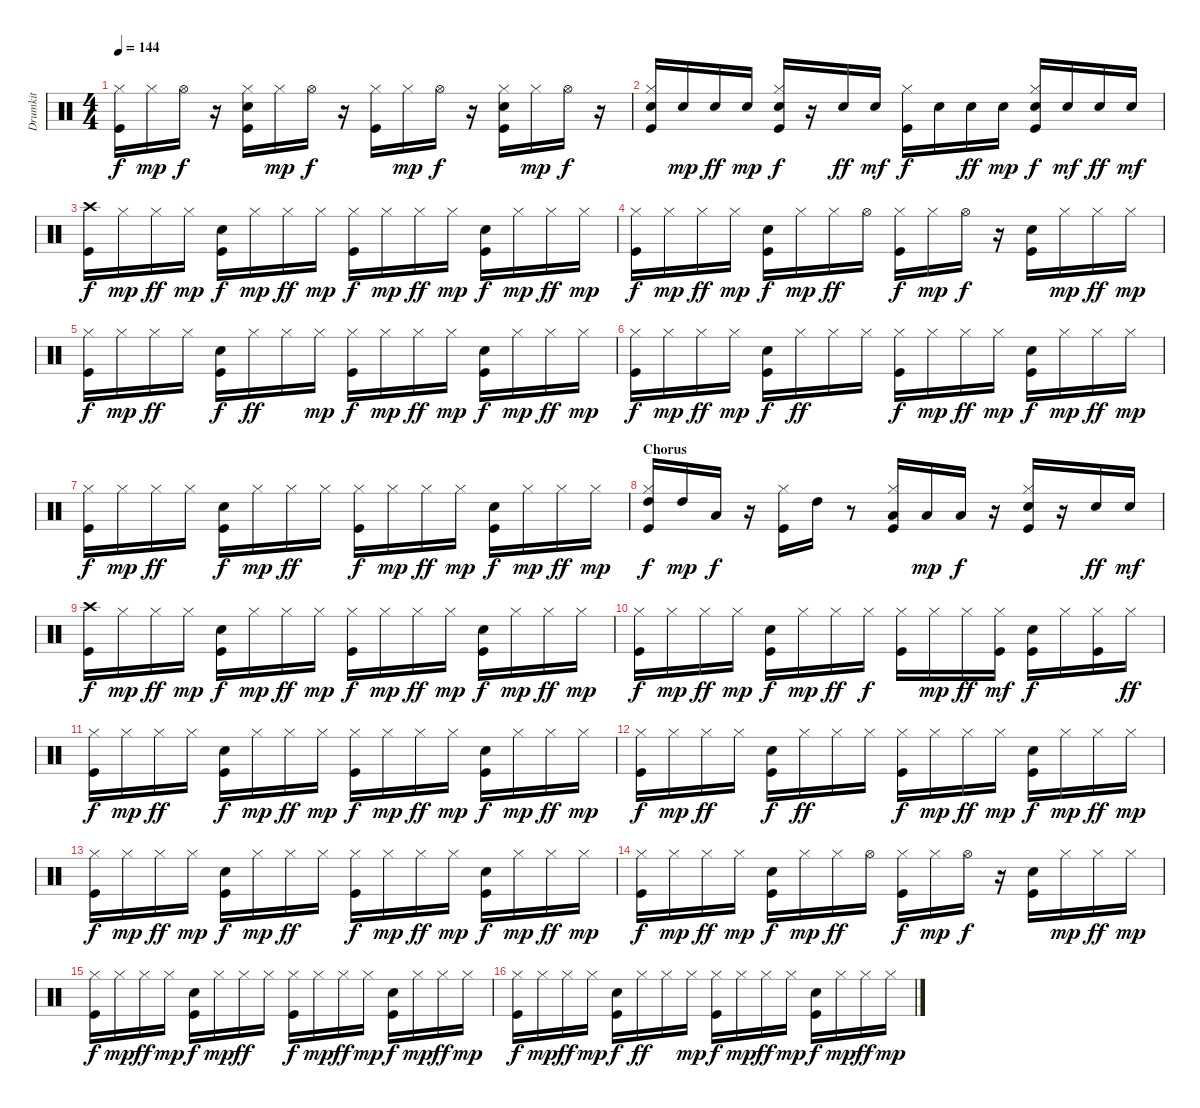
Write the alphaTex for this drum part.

\track ("Drumkit" "Drumkit") {instrument percussion}
\staff {score}
\articulation defaults
\ts (4 4)
\tempo 144
\clef neutral
\ks c
("Kick (hit)" "Hi-Hat (closed)").16{dy f} "Hi-Hat (closed)".16{dy mp} "Hi-Hat (open)".16{dy f} r.16 ("Kick (hit)" "Snare (hit) 2" "Hi-Hat (closed)").16 "Hi-Hat (closed)".16{dy mp} "Hi-Hat (open)".16{dy f} r.16 ("Kick (hit)" "Hi-Hat (closed)").16 "Hi-Hat (closed)".16{dy mp} "Hi-Hat (open)".16{dy f} r.16 ("Kick (hit)" "Snare (hit) 2" "Hi-Hat (closed)").16 "Hi-Hat (closed)".16{dy mp} "Hi-Hat (open)".16{dy f} r.16 |
("Kick (hit)" "Snare (hit) 2" "Hi-Hat (closed)").16 "Snare (hit) 2".16{dy mp} "Snare (hit) 2".16{dy ff} "Snare (hit) 2".16{dy mp} ("Kick (hit)" "Snare (hit) 2" "Hi-Hat (closed)").16{dy f} r.16 "Snare (hit) 2".16{dy ff} "Snare (hit) 2".16{dy mf} ("Kick (hit)" "Hi-Hat (closed)").16{dy f} "Snare (hit) 2".16 "Snare (hit) 2".16{dy ff} "Snare (hit) 2".16{dy mp} ("Kick (hit)" "Snare (hit) 2" "Hi-Hat (closed)").16{dy f} "Snare (hit) 2".16{dy mf} "Snare (hit) 2".16{dy ff} "Snare (hit) 2".16{dy mf} |
("Kick (hit)" "Crash high (hit)").16{dy f} "Hi-Hat (closed)".16{dy mp} "Hi-Hat (closed)".16{dy ff} "Hi-Hat (closed)".16{dy mp} ("Kick (hit)" "Snare (hit) 2").16{dy f} "Hi-Hat (closed)".16{dy mp} "Hi-Hat (closed)".16{dy ff} "Hi-Hat (closed)".16{dy mp} ("Kick (hit)" "Hi-Hat (closed)").16{dy f} "Hi-Hat (closed)".16{dy mp} "Hi-Hat (closed)".16{dy ff} "Hi-Hat (closed)".16{dy mp} ("Kick (hit)" "Snare (hit) 2").16{dy f} "Hi-Hat (closed)".16{dy mp} "Hi-Hat (closed)".16{dy ff} "Hi-Hat (closed)".16{dy mp} |
("Kick (hit)" "Hi-Hat (closed)").16{dy f} "Hi-Hat (closed)".16{dy mp} "Hi-Hat (closed)".16{dy ff} "Hi-Hat (closed)".16{dy mp} ("Kick (hit)" "Snare (hit) 2").16{dy f} "Hi-Hat (closed)".16{dy mp} "Hi-Hat (closed)".16{dy ff} "Hi-Hat (open)".16 ("Kick (hit)" "Hi-Hat (closed)").16{dy f} "Hi-Hat (closed)".16{dy mp} "Hi-Hat (open)".16{dy f} r.16 ("Kick (hit)" "Snare (hit) 2").16 "Hi-Hat (closed)".16{dy mp} "Hi-Hat (closed)".16{dy ff} "Hi-Hat (closed)".16{dy mp} |
("Kick (hit)" "Hi-Hat (closed)").16{dy f} "Hi-Hat (closed)".16{dy mp} "Hi-Hat (closed)".16{dy ff} "Hi-Hat (closed)".16 ("Kick (hit)" "Snare (hit) 2").16{dy f} "Hi-Hat (closed)".16{dy ff} "Hi-Hat (closed)".16 "Hi-Hat (closed)".16{dy mp} ("Kick (hit)" "Hi-Hat (closed)").16{dy f} "Hi-Hat (closed)".16{dy mp} "Hi-Hat (closed)".16{dy ff} "Hi-Hat (closed)".16{dy mp} ("Kick (hit)" "Snare (hit) 2").16{dy f} "Hi-Hat (closed)".16{dy mp} "Hi-Hat (closed)".16{dy ff} "Hi-Hat (closed)".16{dy mp} |
("Kick (hit)" "Hi-Hat (closed)").16{dy f} "Hi-Hat (closed)".16{dy mp} "Hi-Hat (closed)".16{dy ff} "Hi-Hat (closed)".16{dy mp} ("Kick (hit)" "Snare (hit) 2").16{dy f} "Hi-Hat (closed)".16{dy ff} "Hi-Hat (closed)".16 "Hi-Hat (closed)".16 ("Kick (hit)" "Hi-Hat (closed)").16{dy f} "Hi-Hat (closed)".16{dy mp} "Hi-Hat (closed)".16{dy ff} "Hi-Hat (closed)".16{dy mp} ("Kick (hit)" "Snare (hit) 2").16{dy f} "Hi-Hat (closed)".16{dy mp} "Hi-Hat (closed)".16{dy ff} "Hi-Hat (closed)".16{dy mp} |
("Kick (hit)" "Hi-Hat (closed)").16{dy f} "Hi-Hat (closed)".16{dy mp} "Hi-Hat (closed)".16{dy ff} "Hi-Hat (closed)".16 ("Kick (hit)" "Snare (hit) 2").16{dy f} "Hi-Hat (closed)".16{dy mp} "Hi-Hat (closed)".16{dy ff} "Hi-Hat (closed)".16 ("Kick (hit)" "Hi-Hat (closed)").16{dy f} "Hi-Hat (closed)".16{dy mp} "Hi-Hat (closed)".16{dy ff} "Hi-Hat (closed)".16{dy mp} ("Kick (hit)" "Snare (hit) 2").16{dy f} "Hi-Hat (closed)".16{dy mp} "Hi-Hat (closed)".16{dy ff} "Hi-Hat (closed)".16{dy mp} |
\section ("" "Chorus")
("Kick (hit)" "Hi-Hat (closed)" "High Tom (hit)").16{dy f} "High Tom (hit)".16{dy mp} "Low Tom (hit)".16{dy f} r.16 ("Kick (hit)" "Hi-Hat (closed)").16 "High Tom (hit)".16 r.8 ("Kick (hit)" "Hi-Hat (closed)" "Low Tom (hit)").16 "Low Tom (hit)".16{dy mp} "Low Floor Tom (hit)".16{dy f} r.16 ("Kick (hit)" "Snare (hit) 2" "Hi-Hat (closed)").16 r.16 "Snare (hit) 2".16{dy ff} "Snare (hit) 2".16{dy mf} |
("Kick (hit)" "Crash high (hit)").16{dy f} "Hi-Hat (closed)".16{dy mp} "Hi-Hat (closed)".16{dy ff} "Hi-Hat (closed)".16{dy mp} ("Kick (hit)" "Snare (hit) 2").16{dy f} "Hi-Hat (closed)".16{dy mp} "Hi-Hat (closed)".16{dy ff} "Hi-Hat (closed)".16{dy mp} ("Kick (hit)" "Hi-Hat (closed)").16{dy f} "Hi-Hat (closed)".16{dy mp} "Hi-Hat (closed)".16{dy ff} "Hi-Hat (closed)".16{dy mp} ("Kick (hit)" "Snare (hit) 2").16{dy f} "Hi-Hat (closed)".16{dy mp} "Hi-Hat (closed)".16{dy ff} "Hi-Hat (closed)".16{dy mp} |
("Kick (hit)" "Hi-Hat (closed)").16{dy f} "Hi-Hat (closed)".16{dy mp} "Hi-Hat (closed)".16{dy ff} "Hi-Hat (closed)".16{dy mp} ("Kick (hit)" "Snare (hit) 2").16{dy f} "Hi-Hat (closed)".16{dy mp} "Hi-Hat (closed)".16{dy ff} "Hi-Hat (closed)".16{dy f} ("Kick (hit)" "Hi-Hat (closed)").16 "Hi-Hat (closed)".16{dy mp} "Hi-Hat (closed)".16{dy ff} ("Kick (hit)" "Hi-Hat (closed)").16{dy mf} ("Kick (hit)" "Snare (hit) 2").16{dy f} "Hi-Hat (closed)".16 ("Kick (hit)" "Hi-Hat (closed)").16 "Hi-Hat (closed)".16{dy ff} |
("Kick (hit)" "Hi-Hat (closed)").16{dy f} "Hi-Hat (closed)".16{dy mp} "Hi-Hat (closed)".16{dy ff} "Hi-Hat (closed)".16 ("Kick (hit)" "Snare (hit) 2").16{dy f} "Hi-Hat (closed)".16{dy mp} "Hi-Hat (closed)".16{dy ff} "Hi-Hat (closed)".16{dy mp} ("Kick (hit)" "Hi-Hat (closed)").16{dy f} "Hi-Hat (closed)".16{dy mp} "Hi-Hat (closed)".16{dy ff} "Hi-Hat (closed)".16{dy mp} ("Kick (hit)" "Snare (hit) 2").16{dy f} "Hi-Hat (closed)".16{dy mp} "Hi-Hat (closed)".16{dy ff} "Hi-Hat (closed)".16{dy mp} |
("Kick (hit)" "Hi-Hat (closed)").16{dy f} "Hi-Hat (closed)".16{dy mp} "Hi-Hat (closed)".16{dy ff} "Hi-Hat (closed)".16 ("Kick (hit)" "Snare (hit) 2").16{dy f} "Hi-Hat (closed)".16{dy ff} "Hi-Hat (closed)".16 "Hi-Hat (closed)".16 ("Kick (hit)" "Hi-Hat (closed)").16{dy f} "Hi-Hat (closed)".16{dy mp} "Hi-Hat (closed)".16{dy ff} "Hi-Hat (closed)".16{dy mp} ("Kick (hit)" "Snare (hit) 2").16{dy f} "Hi-Hat (closed)".16{dy mp} "Hi-Hat (closed)".16{dy ff} "Hi-Hat (closed)".16{dy mp} |
("Kick (hit)" "Hi-Hat (closed)").16{dy f} "Hi-Hat (closed)".16{dy mp} "Hi-Hat (closed)".16{dy ff} "Hi-Hat (closed)".16{dy mp} ("Kick (hit)" "Snare (hit) 2").16{dy f} "Hi-Hat (closed)".16{dy mp} "Hi-Hat (closed)".16{dy ff} "Hi-Hat (closed)".16 ("Kick (hit)" "Hi-Hat (closed)").16{dy f} "Hi-Hat (closed)".16{dy mp} "Hi-Hat (closed)".16{dy ff} "Hi-Hat (closed)".16{dy mp} ("Kick (hit)" "Snare (hit) 2").16{dy f} "Hi-Hat (closed)".16{dy mp} "Hi-Hat (closed)".16{dy ff} "Hi-Hat (closed)".16{dy mp} |
("Kick (hit)" "Hi-Hat (closed)").16{dy f} "Hi-Hat (closed)".16{dy mp} "Hi-Hat (closed)".16{dy ff} "Hi-Hat (closed)".16{dy mp} ("Kick (hit)" "Snare (hit) 2").16{dy f} "Hi-Hat (closed)".16{dy mp} "Hi-Hat (closed)".16{dy ff} "Hi-Hat (open)".16 ("Kick (hit)" "Hi-Hat (closed)").16{dy f} "Hi-Hat (closed)".16{dy mp} "Hi-Hat (open)".16{dy f} r.16 ("Kick (hit)" "Snare (hit) 2").16 "Hi-Hat (closed)".16{dy mp} "Hi-Hat (closed)".16{dy ff} "Hi-Hat (closed)".16{dy mp} |
("Kick (hit)" "Hi-Hat (closed)").16{dy f} "Hi-Hat (closed)".16{dy mp} "Hi-Hat (closed)".16{dy ff} "Hi-Hat (closed)".16{dy mp} ("Kick (hit)" "Snare (hit) 2").16{dy f} "Hi-Hat (closed)".16{dy mp} "Hi-Hat (closed)".16{dy ff} "Hi-Hat (closed)".16 ("Kick (hit)" "Hi-Hat (closed)").16{dy f} "Hi-Hat (closed)".16{dy mp} "Hi-Hat (closed)".16{dy ff} "Hi-Hat (closed)".16{dy mp} ("Kick (hit)" "Snare (hit) 2").16{dy f} "Hi-Hat (closed)".16{dy mp} "Hi-Hat (closed)".16{dy ff} "Hi-Hat (closed)".16{dy mp} |
("Kick (hit)" "Hi-Hat (closed)").16{dy f} "Hi-Hat (closed)".16{dy mp} "Hi-Hat (closed)".16{dy ff} "Hi-Hat (closed)".16{dy mp} ("Kick (hit)" "Snare (hit) 2").16{dy f} "Hi-Hat (closed)".16{dy ff} "Hi-Hat (closed)".16 "Hi-Hat (closed)".16{dy mp} ("Kick (hit)" "Hi-Hat (closed)").16{dy f} "Hi-Hat (closed)".16{dy mp} "Hi-Hat (closed)".16{dy ff} "Hi-Hat (closed)".16{dy mp} ("Kick (hit)" "Snare (hit) 2").16{dy f} "Hi-Hat (closed)".16{dy mp} "Hi-Hat (closed)".16{dy ff} "Hi-Hat (closed)".16{dy mp}
